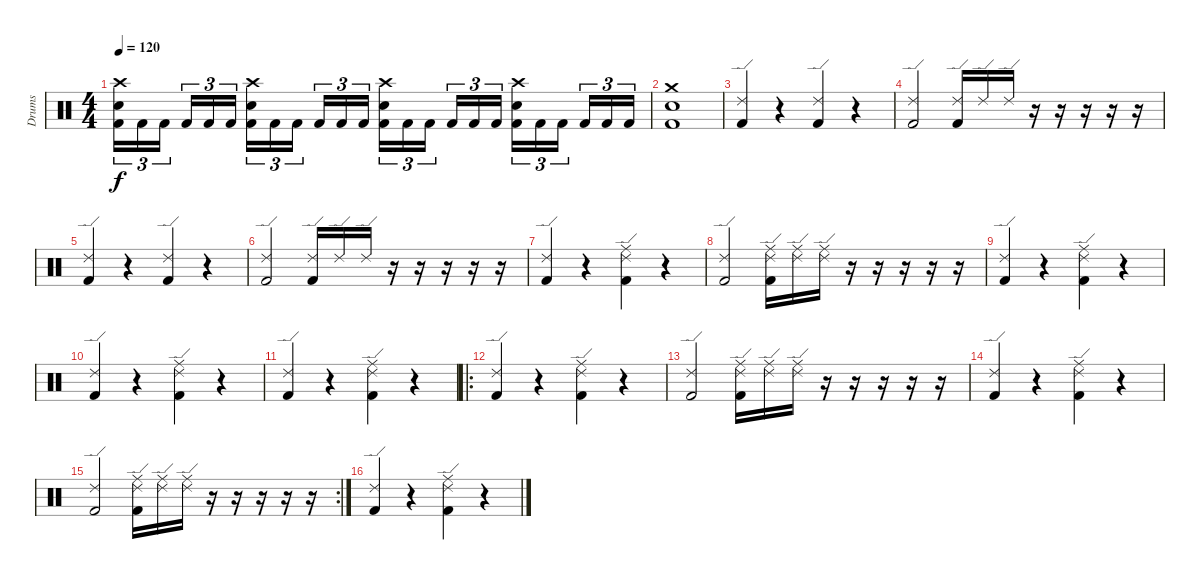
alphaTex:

\track ("Drums" "Drums") {instrument percussion}
\staff {score}
\articulation defaults
\ts (4 4)
\tempo 120
\clef neutral
\ks c
("Crash high (hit)" "Electric Snare (hit)" "Kick (hit) 2").16{tu (3 2) dy f} "Kick (hit) 2".16{tu (3 2)} "Kick (hit) 2".16{tu (3 2)} "Kick (hit) 2".16{tu (3 2)} "Kick (hit) 2".16{tu (3 2)} "Kick (hit) 2".16{tu (3 2)} ("Crash high (hit)" "Electric Snare (hit)" "Kick (hit) 2").16{tu (3 2)} "Kick (hit) 2".16{tu (3 2)} "Kick (hit) 2".16{tu (3 2)} "Kick (hit) 2".16{tu (3 2)} "Kick (hit) 2".16{tu (3 2)} "Kick (hit) 2".16{tu (3 2)} ("Crash high (hit)" "Electric Snare (hit)" "Kick (hit) 2").16{tu (3 2)} "Kick (hit) 2".16{tu (3 2)} "Kick (hit) 2".16{tu (3 2)} "Kick (hit) 2".16{tu (3 2)} "Kick (hit) 2".16{tu (3 2)} "Kick (hit) 2".16{tu (3 2)} ("Crash high (hit)" "Electric Snare (hit)" "Kick (hit) 2").16{tu (3 2)} "Kick (hit) 2".16{tu (3 2)} "Kick (hit) 2".16{tu (3 2)} "Kick (hit) 2".16{tu (3 2)} "Kick (hit) 2".16{tu (3 2)} "Kick (hit) 2".16{tu (3 2)} |
("Crash medium (hit)" "Electric Snare (hit)" "Kick (hit) 2").1 |
("Ride (edge) 2" "Kick (hit) 2").4 r.4 ("Ride (edge) 2" "Kick (hit) 2").4 r.4 |
("Ride (edge) 2" "Kick (hit) 2").2 ("Ride (edge) 2" "Kick (hit) 2").16 "Ride (edge) 2".16 "Ride (edge) 2".16 r.16 r.16 r.16 r.16 r.16 |
("Ride (edge) 2" "Kick (hit) 2").4 r.4 ("Ride (edge) 2" "Kick (hit) 2").4 r.4 |
("Ride (edge) 2" "Kick (hit) 2").2 ("Ride (edge) 2" "Kick (hit) 2").16 "Ride (edge) 2".16 "Ride (edge) 2".16 r.16 r.16 r.16 r.16 r.16 |
("Ride (edge) 2" "Kick (hit) 2").4 r.4 ("Ride (middle)" "Ride (edge) 2" "Kick (hit) 2").4 r.4 |
("Ride (edge) 2" "Kick (hit) 2").2 ("Ride (middle)" "Ride (edge) 2" "Kick (hit) 2").16 ("Ride (middle)" "Ride (edge) 2").16 ("Ride (middle)" "Ride (edge) 2").16 r.16 r.16 r.16 r.16 r.16 |
("Ride (edge) 2" "Kick (hit) 2").4 r.4 ("Ride (middle)" "Ride (edge) 2" "Kick (hit) 2").4 r.4 |
("Ride (edge) 2" "Kick (hit) 2").4 r.4 ("Ride (middle)" "Ride (edge) 2" "Kick (hit) 2").4 r.4 |
("Ride (edge) 2" "Kick (hit) 2").4 r.4 ("Ride (middle)" "Ride (edge) 2" "Kick (hit) 2").4 r.4 |
\ro
("Ride (edge) 2" "Kick (hit) 2").4 r.4 ("Ride (middle)" "Ride (edge) 2" "Kick (hit) 2").4 r.4 |
("Ride (edge) 2" "Kick (hit) 2").2 ("Ride (middle)" "Ride (edge) 2" "Kick (hit) 2").16 ("Ride (middle)" "Ride (edge) 2").16 ("Ride (middle)" "Ride (edge) 2").16 r.16 r.16 r.16 r.16 r.16 |
("Ride (edge) 2" "Kick (hit) 2").4 r.4 ("Ride (middle)" "Ride (edge) 2" "Kick (hit) 2").4 r.4 |
\rc 2
("Ride (edge) 2" "Kick (hit) 2").2 ("Ride (middle)" "Ride (edge) 2" "Kick (hit) 2").16 ("Ride (middle)" "Ride (edge) 2").16 ("Ride (middle)" "Ride (edge) 2").16 r.16 r.16 r.16 r.16 r.16 |
("Ride (edge) 2" "Kick (hit) 2").4 r.4 ("Ride (middle)" "Ride (edge) 2" "Kick (hit) 2").4 r.4
